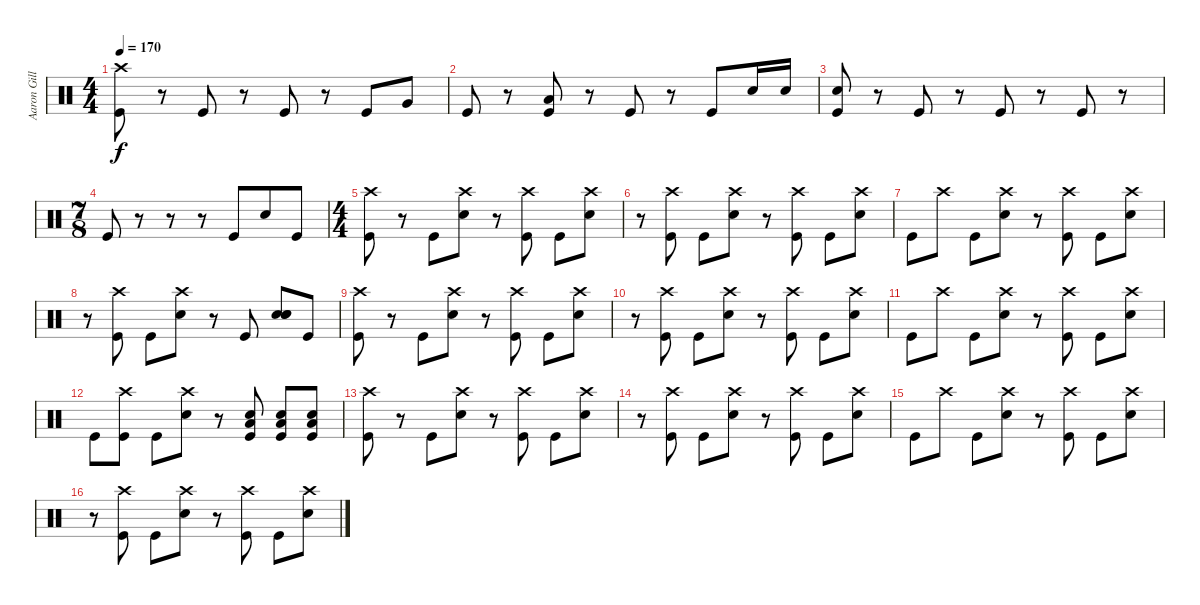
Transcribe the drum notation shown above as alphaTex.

\track ("Aaron Gillepsie (Drums)" "Aaron Gill") {instrument percussion}
\staff {score}
\articulation defaults
\ts (4 4)
\tempo 170
\clef neutral
\ks c
("Crash high (hit)" "Kick (hit)").8{dy f} r.8 "Kick (hit)".8 r.8 "Kick (hit)".8 r.8 "Kick (hit)".8 "Very Low Tom (hit)".8 |
"Kick (hit)".8 r.8 ("Low Floor Tom (hit)" "Kick (hit)").8 r.8 "Kick (hit)".8 r.8 "Kick (hit)".8 "Electric Snare (hit)".16 "Electric Snare (hit)".16 |
("Electric Snare (hit)" "Kick (hit)").8 r.8 "Kick (hit)".8 r.8 "Kick (hit)".8 r.8 "Kick (hit)".8 r.8 |
\ts (7 8)
"Kick (hit)".8 r.8 r.8 r.8 "Kick (hit)".8 "Electric Snare (hit)".8 "Kick (hit)".8 |
\ts (4 4)
("Crash high (hit)" "Kick (hit)").8 r.8 "Kick (hit)".8 ("Crash high (hit)" "Electric Snare (hit)").8 r.8 ("Crash high (hit)" "Kick (hit)").8 "Kick (hit)".8 ("Crash high (hit)" "Electric Snare (hit)").8 |
r.8 ("Crash high (hit)" "Kick (hit)").8 "Kick (hit)".8 ("Crash high (hit)" "Electric Snare (hit)").8 r.8 ("Crash high (hit)" "Kick (hit)").8 "Kick (hit)".8 ("Crash high (hit)" "Electric Snare (hit)").8 |
"Kick (hit)".8 "Crash high (hit)".8 "Kick (hit)".8 ("Crash high (hit)" "Electric Snare (hit)").8 r.8 ("Crash high (hit)" "Kick (hit)").8 "Kick (hit)".8 ("Crash high (hit)" "Electric Snare (hit)").8 |
r.8 ("Crash high (hit)" "Kick (hit)").8 "Kick (hit)".8 ("Crash high (hit)" "Electric Snare (hit)").8 r.8 "Kick (hit)".8 ("Electric Snare (hit)" "Electric Snare (hit)" "Electric Snare (hit)").8 "Kick (hit)".8 |
("Crash high (hit)" "Kick (hit)").8 r.8 "Kick (hit)".8 ("Crash high (hit)" "Electric Snare (hit)").8 r.8 ("Crash high (hit)" "Kick (hit)").8 "Kick (hit)".8 ("Crash high (hit)" "Electric Snare (hit)").8 |
r.8 ("Crash high (hit)" "Kick (hit)").8 "Kick (hit)".8 ("Crash high (hit)" "Electric Snare (hit)").8 r.8 ("Crash high (hit)" "Kick (hit)").8 "Kick (hit)".8 ("Crash high (hit)" "Electric Snare (hit)").8 |
"Kick (hit)".8 "Crash high (hit)".8 "Kick (hit)".8 ("Crash high (hit)" "Electric Snare (hit)").8 r.8 ("Crash high (hit)" "Kick (hit)").8 "Kick (hit)".8 ("Crash high (hit)" "Electric Snare (hit)").8 |
"Kick (hit)".8 ("Crash high (hit)" "Kick (hit)").8 "Kick (hit)".8 ("Crash high (hit)" "Electric Snare (hit)").8 r.8 ("Electric Snare (hit)" "Kick (hit)" "Low Floor Tom (hit)").8 ("Electric Snare (hit)" "Kick (hit)" "Low Floor Tom (hit)").8 ("Electric Snare (hit)" "Kick (hit)" "Low Floor Tom (hit)").8 |
("Crash high (hit)" "Kick (hit)").8 r.8 "Kick (hit)".8 ("Crash high (hit)" "Electric Snare (hit)").8 r.8 ("Crash high (hit)" "Kick (hit)").8 "Kick (hit)".8 ("Crash high (hit)" "Electric Snare (hit)").8 |
r.8 ("Crash high (hit)" "Kick (hit)").8 "Kick (hit)".8 ("Crash high (hit)" "Electric Snare (hit)").8 r.8 ("Crash high (hit)" "Kick (hit)").8 "Kick (hit)".8 ("Crash high (hit)" "Electric Snare (hit)").8 |
"Kick (hit)".8 "Crash high (hit)".8 "Kick (hit)".8 ("Crash high (hit)" "Electric Snare (hit)").8 r.8 ("Crash high (hit)" "Kick (hit)").8 "Kick (hit)".8 ("Crash high (hit)" "Electric Snare (hit)").8 |
r.8 ("Crash high (hit)" "Kick (hit)").8 "Kick (hit)".8 ("Crash high (hit)" "Electric Snare (hit)").8 r.8 ("Crash high (hit)" "Kick (hit)").8 "Kick (hit)".8 ("Crash high (hit)" "Electric Snare (hit)").8
